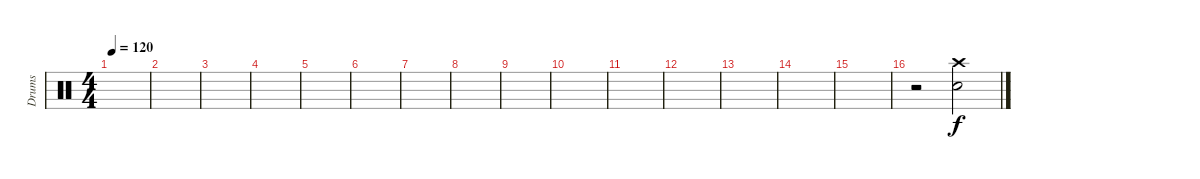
\track ("Drums" "Drums") {instrument percussion}
\staff {score}
\articulation defaults
\ts (4 4)
\tempo 120
\clef neutral
\ks c
|
|
|
|
|
|
|
|
|
|
|
|
|
|
|
r.2 ("Crash high (hit)" "Electric Snare (hit)").2
